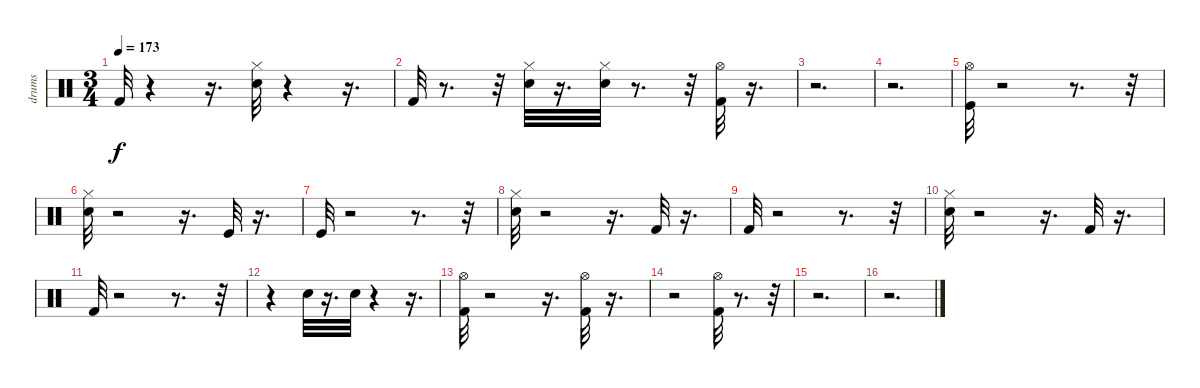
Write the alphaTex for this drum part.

\track ("drums" "drums") {instrument percussion}
\staff {score}
\articulation defaults
\ts (3 4)
\tempo 173
\clef neutral
\ks c "Kick (hit) 2".32{dy f}
r.4 r.16{d} ("Hi-Hat (closed)" "Snare (hit) 2").32 r.4 r.16{d} |
"Kick (hit) 2".32 r.8{d} r.32 ("Hi-Hat (closed)" "Snare (hit) 2").32 r.16{d} ("Hi-Hat (closed)" "Snare (hit) 2").32 r.8{d} r.32 ("Hi-Hat (open)" "Kick (hit) 2").32 r.16{d} |
r.2{d} |
r.2{d} |
("Hi-Hat (open)" "Kick (hit)").32 r.2 r.8{d} r.32 |
("Hi-Hat (closed)" "Snare (hit) 2").32 r.2 r.16{d} "Kick (hit)".32 r.16{d} |
"Kick (hit)".32 r.2 r.8{d} r.32 |
("Hi-Hat (closed)" "Snare (hit) 2").32 r.2 r.16{d} "Kick (hit) 2".32 r.16{d} |
"Kick (hit) 2".32 r.2 r.8{d} r.32 |
("Hi-Hat (closed)" "Snare (hit) 2").32 r.2 r.16{d} "Kick (hit) 2".32 r.16{d} |
"Kick (hit) 2".32 r.2 r.8{d} r.32 |
r.4 "Snare (hit) 2".32 r.16{d} "Snare (hit) 2".32 r.4 r.16{d} |
("Hi-Hat (open)" "Kick (hit) 2").32 r.2 r.16{d} ("Hi-Hat (open)" "Kick (hit) 2").32 r.16{d} |
r.2 ("Kick (hit) 2" "Hi-Hat (open)").32 r.8{d} r.32 |
r.2{d} |
r.2{d}
